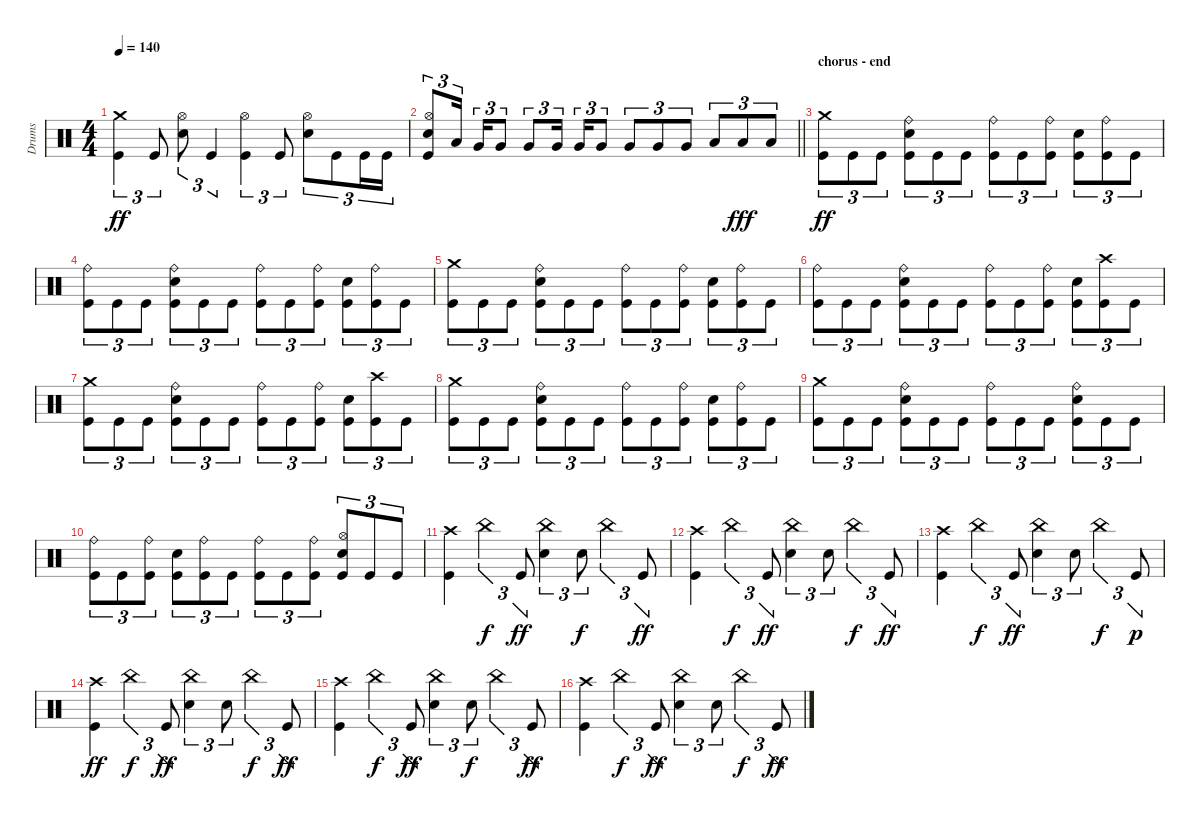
\track ("Drums" "Drums") {instrument percussion}
\staff {score}
\articulation defaults
\ts (4 4)
\tempo 140
\clef neutral
\ks c
("Crash medium (hit)" "Kick (hit)").4{tu (3 2) dy ff} "Kick (hit)".8{tu (3 2)} ("Hi-Hat (open)" "Electric Snare (hit)").8{tu (3 2)} "Kick (hit)".4{tu (3 2)} ("Hi-Hat (open)" "Kick (hit)").4{tu (3 2)} "Kick (hit)".8{tu (3 2)} ("Hi-Hat (open)" "Electric Snare (hit)").8{tu (3 2)} "Kick (hit)".8{tu (3 2)} "Kick (hit)".16{tu (3 2)} "Kick (hit)".16{tu (3 2)} |
\barLineRight lightlight
("Hi-Hat (open)" "Electric Snare (hit)" "Kick (hit)").8{tu (3 2)} "Low Tom (hit)".16{tu (3 2) beam splitsecondary} "Very Low Tom (hit)".16{tu (3 2)} "Very Low Tom (hit)".8{tu (3 2)} "Very Low Tom (hit)".8{tu (3 2)} "Very Low Tom (hit)".16{tu (3 2) beam splitsecondary} "Very Low Tom (hit)".16{tu (3 2)} "Very Low Tom (hit)".8{tu (3 2)} "Very Low Tom (hit)".8{tu (3 2)} "Very Low Tom (hit)".8{tu (3 2)} "Very Low Tom (hit)".8{tu (3 2)} "Low Floor Tom (hit)".8{tu (3 2)} "Low Floor Tom (hit)".8{tu (3 2) dy fff} "Low Floor Tom (hit)".8{tu (3 2)} |
\section ("" "chorus - end")
("Crash medium (hit)" "Kick (hit)").8{tu (3 2) dy ff} "Kick (hit)".8{tu (3 2)} "Kick (hit)".8{tu (3 2)} ("Ride (bell)" "Electric Snare (hit)" "Kick (hit)").8{tu (3 2)} "Kick (hit)".8{tu (3 2)} "Kick (hit)".8{tu (3 2)} ("Ride (bell)" "Kick (hit)").8{tu (3 2)} "Kick (hit)".8{tu (3 2)} ("Ride (bell)" "Kick (hit)").8{tu (3 2)} ("Electric Snare (hit)" "Kick (hit)").8{tu (3 2)} ("Ride (bell)" "Kick (hit)").8{tu (3 2)} "Kick (hit)".8{tu (3 2)} |
("Ride (bell)" "Kick (hit)").8{tu (3 2)} "Kick (hit)".8{tu (3 2)} "Kick (hit)".8{tu (3 2)} ("Ride (bell)" "Electric Snare (hit)" "Kick (hit)").8{tu (3 2)} "Kick (hit)".8{tu (3 2)} "Kick (hit)".8{tu (3 2)} ("Ride (bell)" "Kick (hit)").8{tu (3 2)} "Kick (hit)".8{tu (3 2)} ("Ride (bell)" "Kick (hit)").8{tu (3 2)} ("Electric Snare (hit)" "Kick (hit)").8{tu (3 2)} ("Ride (bell)" "Kick (hit)").8{tu (3 2)} "Kick (hit)".8{tu (3 2)} |
("Crash medium (hit)" "Kick (hit)").8{tu (3 2)} "Kick (hit)".8{tu (3 2)} "Kick (hit)".8{tu (3 2)} ("Ride (bell)" "Electric Snare (hit)" "Kick (hit)").8{tu (3 2)} "Kick (hit)".8{tu (3 2)} "Kick (hit)".8{tu (3 2)} ("Ride (bell)" "Kick (hit)").8{tu (3 2)} "Kick (hit)".8{tu (3 2)} ("Ride (bell)" "Kick (hit)").8{tu (3 2)} ("Electric Snare (hit)" "Kick (hit)").8{tu (3 2)} ("Ride (bell)" "Kick (hit)").8{tu (3 2)} "Kick (hit)".8{tu (3 2)} |
("Ride (bell)" "Kick (hit)").8{tu (3 2)} "Kick (hit)".8{tu (3 2)} "Kick (hit)".8{tu (3 2)} ("Ride (bell)" "Electric Snare (hit)" "Kick (hit)").8{tu (3 2)} "Kick (hit)".8{tu (3 2)} "Kick (hit)".8{tu (3 2)} ("Ride (bell)" "Kick (hit)").8{tu (3 2)} "Kick (hit)".8{tu (3 2)} ("Ride (bell)" "Kick (hit)").8{tu (3 2)} ("Electric Snare (hit)" "Kick (hit)").8{tu (3 2)} ("Crash high (hit)" "Kick (hit)").8{tu (3 2)} "Kick (hit)".8{tu (3 2)} |
("Crash medium (hit)" "Kick (hit)").8{tu (3 2)} "Kick (hit)".8{tu (3 2)} "Kick (hit)".8{tu (3 2)} ("Ride (bell)" "Electric Snare (hit)" "Kick (hit)").8{tu (3 2)} "Kick (hit)".8{tu (3 2)} "Kick (hit)".8{tu (3 2)} ("Ride (bell)" "Kick (hit)").8{tu (3 2)} "Kick (hit)".8{tu (3 2)} ("Ride (bell)" "Kick (hit)").8{tu (3 2)} ("Electric Snare (hit)" "Kick (hit)").8{tu (3 2)} ("Crash high (hit)" "Kick (hit)").8{tu (3 2)} "Kick (hit)".8{tu (3 2)} |
("Crash medium (hit)" "Kick (hit)").8{tu (3 2)} "Kick (hit)".8{tu (3 2)} "Kick (hit)".8{tu (3 2)} ("Ride (bell)" "Electric Snare (hit)" "Kick (hit)").8{tu (3 2)} "Kick (hit)".8{tu (3 2)} "Kick (hit)".8{tu (3 2)} ("Ride (bell)" "Kick (hit)").8{tu (3 2)} "Kick (hit)".8{tu (3 2)} ("Ride (bell)" "Kick (hit)").8{tu (3 2)} ("Electric Snare (hit)" "Kick (hit)").8{tu (3 2)} ("Ride (bell)" "Kick (hit)").8{tu (3 2)} "Kick (hit)".8{tu (3 2)} |
("Crash medium (hit)" "Kick (hit)").8{tu (3 2)} "Kick (hit)".8{tu (3 2)} "Kick (hit)".8{tu (3 2)} ("Ride (bell)" "Electric Snare (hit)" "Kick (hit)").8{tu (3 2)} "Kick (hit)".8{tu (3 2)} "Kick (hit)".8{tu (3 2)} ("Ride (bell)" "Kick (hit)").8{tu (3 2)} "Kick (hit)".8{tu (3 2)} "Kick (hit)".8{tu (3 2)} ("Ride (bell)" "Electric Snare (hit)" "Kick (hit)").8{tu (3 2)} "Kick (hit)".8{tu (3 2)} "Kick (hit)".8{tu (3 2)} |
("Ride (bell)" "Kick (hit)").8{tu (3 2)} "Kick (hit)".8{tu (3 2)} ("Ride (bell)" "Kick (hit)").8{tu (3 2)} ("Electric Snare (hit)" "Kick (hit)").8{tu (3 2)} ("Ride (bell)" "Kick (hit)").8{tu (3 2)} "Kick (hit)".8{tu (3 2)} ("Ride (bell)" "Kick (hit)").8{tu (3 2)} "Kick (hit)".8{tu (3 2)} ("Ride (bell)" "Kick (hit)").8{tu (3 2)} ("Hi-Hat (open)" "Electric Snare (hit)" "Kick (hit)").8{tu (3 2)} "Kick (hit)".8{tu (3 2)} "Kick (hit)".8{tu (3 2)} |
("Crash high (hit)" "Kick (hit)").4 "China (hit)".4{tu (3 2) dy f} "Kick (hit)".8{tu (3 2) dy ff} ("China (hit)" "Electric Snare (hit)").4{tu (3 2)} "Electric Snare (hit)".8{tu (3 2) dy f} "China (hit)".4{tu (3 2)} "Kick (hit)".8{tu (3 2) dy ff} |
("Crash high (hit)" "Kick (hit)").4 "China (hit)".4{tu (3 2) dy f} "Kick (hit)".8{tu (3 2) dy ff} ("China (hit)" "Electric Snare (hit)").4{tu (3 2)} "Electric Snare (hit)".8{tu (3 2)} "China (hit)".4{tu (3 2) dy f} "Kick (hit)".8{tu (3 2) dy ff} |
("Crash high (hit)" "Kick (hit)").4 "China (hit)".4{tu (3 2) dy f} "Kick (hit)".8{tu (3 2) dy ff} ("China (hit)" "Electric Snare (hit)").4{tu (3 2)} "Electric Snare (hit)".8{tu (3 2)} "China (hit)".4{tu (3 2) dy f} "Kick (hit)".8{tu (3 2) dy p} |
("Crash high (hit)" "Kick (hit)").4{dy ff} "China (hit)".4{tu (3 2) dy f} "Kick (hit)".8{tu (3 2) dy ff} ("China (hit)" "Electric Snare (hit)").4{tu (3 2)} "Electric Snare (hit)".8{tu (3 2)} "China (hit)".4{tu (3 2) dy f} "Kick (hit)".8{tu (3 2) dy ff} |
("Crash high (hit)" "Kick (hit)").4 "China (hit)".4{tu (3 2) dy f} "Kick (hit)".8{tu (3 2) dy ff} ("China (hit)" "Electric Snare (hit)").4{tu (3 2)} "Electric Snare (hit)".8{tu (3 2) dy f} "China (hit)".4{tu (3 2)} "Kick (hit)".8{tu (3 2) dy ff} |
("Crash high (hit)" "Kick (hit)").4 "China (hit)".4{tu (3 2) dy f} "Kick (hit)".8{tu (3 2) dy ff} ("China (hit)" "Electric Snare (hit)").4{tu (3 2)} "Electric Snare (hit)".8{tu (3 2)} "China (hit)".4{tu (3 2) dy f} "Kick (hit)".8{tu (3 2) dy ff}
